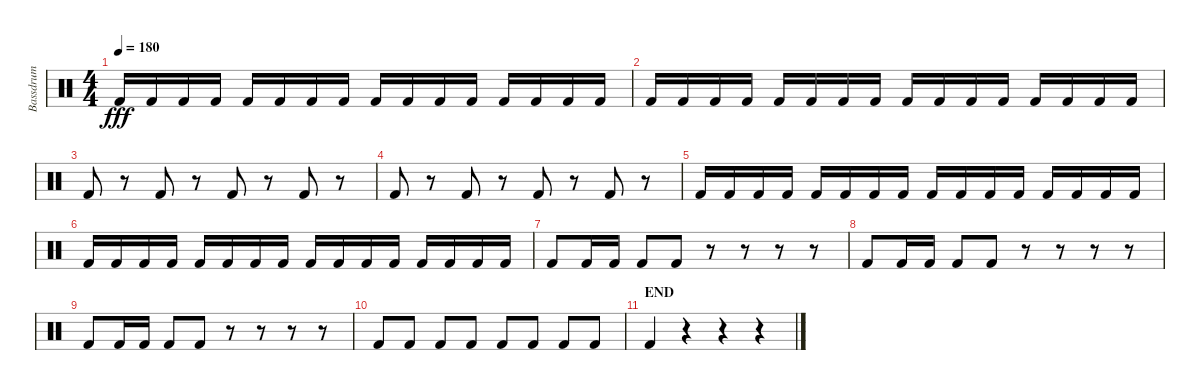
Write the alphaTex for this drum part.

\track ("Bassdrum" "Bassdrum") {instrument percussion}
\staff {score}
\articulation defaults
\ts (4 4)
\tempo 180
\clef neutral
\ks c "Kick (hit) 2".16{dy fff} "Kick (hit) 2".16 "Kick (hit) 2".16 "Kick (hit) 2".16 "Kick (hit) 2".16 "Kick (hit) 2".16 "Kick (hit) 2".16 "Kick (hit) 2".16 "Kick (hit) 2".16 "Kick (hit) 2".16 "Kick (hit) 2".16 "Kick (hit) 2".16 "Kick (hit) 2".16 "Kick (hit) 2".16 "Kick (hit) 2".16 "Kick (hit) 2".16
|
"Kick (hit) 2".16 "Kick (hit) 2".16 "Kick (hit) 2".16 "Kick (hit) 2".16 "Kick (hit) 2".16 "Kick (hit) 2".16 "Kick (hit) 2".16 "Kick (hit) 2".16 "Kick (hit) 2".16 "Kick (hit) 2".16 "Kick (hit) 2".16 "Kick (hit) 2".16 "Kick (hit) 2".16 "Kick (hit) 2".16 "Kick (hit) 2".16 "Kick (hit) 2".16 |
"Kick (hit) 2".8 r.8 "Kick (hit) 2".8 r.8 "Kick (hit) 2".8 r.8 "Kick (hit) 2".8 r.8 |
"Kick (hit) 2".8 r.8 "Kick (hit) 2".8 r.8 "Kick (hit) 2".8 r.8 "Kick (hit) 2".8 r.8 |
"Kick (hit) 2".16 "Kick (hit) 2".16 "Kick (hit) 2".16 "Kick (hit) 2".16 "Kick (hit) 2".16 "Kick (hit) 2".16 "Kick (hit) 2".16 "Kick (hit) 2".16 "Kick (hit) 2".16 "Kick (hit) 2".16 "Kick (hit) 2".16 "Kick (hit) 2".16 "Kick (hit) 2".16 "Kick (hit) 2".16 "Kick (hit) 2".16 "Kick (hit) 2".16 |
"Kick (hit) 2".16 "Kick (hit) 2".16 "Kick (hit) 2".16 "Kick (hit) 2".16 "Kick (hit) 2".16 "Kick (hit) 2".16 "Kick (hit) 2".16 "Kick (hit) 2".16 "Kick (hit) 2".16 "Kick (hit) 2".16 "Kick (hit) 2".16 "Kick (hit) 2".16 "Kick (hit) 2".16 "Kick (hit) 2".16 "Kick (hit) 2".16 "Kick (hit) 2".16 |
"Kick (hit) 2".8 "Kick (hit) 2".16 "Kick (hit) 2".16 "Kick (hit) 2".8 "Kick (hit) 2".8 r.8 r.8 r.8 r.8 |
"Kick (hit) 2".8 "Kick (hit) 2".16 "Kick (hit) 2".16 "Kick (hit) 2".8 "Kick (hit) 2".8 r.8 r.8 r.8 r.8 |
"Kick (hit) 2".8 "Kick (hit) 2".16 "Kick (hit) 2".16 "Kick (hit) 2".8 "Kick (hit) 2".8 r.8 r.8 r.8 r.8 |
"Kick (hit) 2".8 "Kick (hit) 2".8 "Kick (hit) 2".8 "Kick (hit) 2".8 "Kick (hit) 2".8 "Kick (hit) 2".8 "Kick (hit) 2".8 "Kick (hit) 2".8 |
\section ("" "END")
"Kick (hit) 2".4 r.4 r.4 r.4
